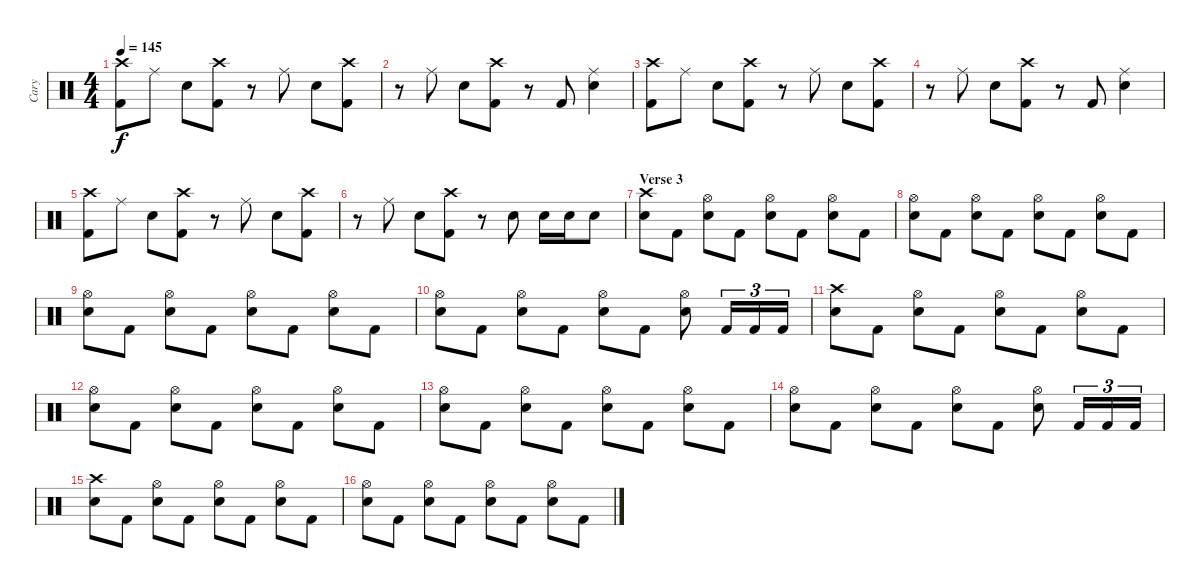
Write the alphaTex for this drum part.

\track ("Cary" "Cary") {instrument percussion}
\staff {score}
\articulation defaults
\ts (4 4)
\tempo 145
\clef neutral
\ks c
("Crash high (hit)" "Kick (hit) 2").8{dy f} "Ride (middle)".8 "Electric Snare (hit)".8 ("Crash high (hit)" "Kick (hit) 2").8 r.8 "Ride (middle)".8 "Electric Snare (hit)".8 ("Crash high (hit)" "Kick (hit) 2").8 |
r.8 "Ride (middle)".8 "Electric Snare (hit)".8 ("Crash high (hit)" "Kick (hit) 2").8 r.8 "Kick (hit) 2".8 ("Ride (middle)" "Electric Snare (hit)").4 |
("Crash high (hit)" "Kick (hit) 2").8 "Ride (middle)".8 "Electric Snare (hit)".8 ("Crash high (hit)" "Kick (hit) 2").8 r.8 "Ride (middle)".8 "Electric Snare (hit)".8 ("Crash high (hit)" "Kick (hit) 2").8 |
r.8 "Ride (middle)".8 "Electric Snare (hit)".8 ("Crash high (hit)" "Kick (hit) 2").8 r.8 "Kick (hit) 2".8 ("Ride (middle)" "Electric Snare (hit)").4 |
("Crash high (hit)" "Kick (hit) 2").8 "Ride (middle)".8 "Electric Snare (hit)".8 ("Crash high (hit)" "Kick (hit) 2").8 r.8 "Ride (middle)".8 "Electric Snare (hit)".8 ("Crash high (hit)" "Kick (hit) 2").8 |
r.8 "Ride (middle)".8 "Electric Snare (hit)".8 ("Crash high (hit)" "Kick (hit) 2").8 r.8 "Electric Snare (hit)".8 "Electric Snare (hit)".16 "Electric Snare (hit)".16 "Electric Snare (hit)".8 |
\section ("" "Verse 3")
("Crash high (hit)" "Electric Snare (hit)").8 "Kick (hit) 2".8 ("Hi-Hat (open)" "Electric Snare (hit)").8 "Kick (hit) 2".8 ("Hi-Hat (open)" "Electric Snare (hit)").8 "Kick (hit) 2".8 ("Hi-Hat (open)" "Electric Snare (hit)").8 "Kick (hit) 2".8 |
("Hi-Hat (open)" "Electric Snare (hit)").8 "Kick (hit) 2".8 ("Hi-Hat (open)" "Electric Snare (hit)").8 "Kick (hit) 2".8 ("Hi-Hat (open)" "Electric Snare (hit)").8 "Kick (hit) 2".8 ("Hi-Hat (open)" "Electric Snare (hit)").8 "Kick (hit) 2".8 |
("Hi-Hat (open)" "Electric Snare (hit)").8 "Kick (hit) 2".8 ("Hi-Hat (open)" "Electric Snare (hit)").8 "Kick (hit) 2".8 ("Hi-Hat (open)" "Electric Snare (hit)").8 "Kick (hit) 2".8 ("Hi-Hat (open)" "Electric Snare (hit)").8 "Kick (hit) 2".8 |
("Hi-Hat (open)" "Electric Snare (hit)").8 "Kick (hit) 2".8 ("Hi-Hat (open)" "Electric Snare (hit)").8 "Kick (hit) 2".8 ("Hi-Hat (open)" "Electric Snare (hit)").8 "Kick (hit) 2".8 ("Hi-Hat (open)" "Electric Snare (hit)").8 "Kick (hit) 2".16{tu (3 2)} "Kick (hit) 2".16{tu (3 2)} "Kick (hit) 2".16{tu (3 2)} |
("Crash high (hit)" "Electric Snare (hit)").8 "Kick (hit) 2".8 ("Hi-Hat (open)" "Electric Snare (hit)").8 "Kick (hit) 2".8 ("Hi-Hat (open)" "Electric Snare (hit)").8 "Kick (hit) 2".8 ("Hi-Hat (open)" "Electric Snare (hit)").8 "Kick (hit) 2".8 |
("Hi-Hat (open)" "Electric Snare (hit)").8 "Kick (hit) 2".8 ("Hi-Hat (open)" "Electric Snare (hit)").8 "Kick (hit) 2".8 ("Hi-Hat (open)" "Electric Snare (hit)").8 "Kick (hit) 2".8 ("Hi-Hat (open)" "Electric Snare (hit)").8 "Kick (hit) 2".8 |
("Hi-Hat (open)" "Electric Snare (hit)").8 "Kick (hit) 2".8 ("Hi-Hat (open)" "Electric Snare (hit)").8 "Kick (hit) 2".8 ("Hi-Hat (open)" "Electric Snare (hit)").8 "Kick (hit) 2".8 ("Hi-Hat (open)" "Electric Snare (hit)").8 "Kick (hit) 2".8 |
("Hi-Hat (open)" "Electric Snare (hit)").8 "Kick (hit) 2".8 ("Hi-Hat (open)" "Electric Snare (hit)").8 "Kick (hit) 2".8 ("Hi-Hat (open)" "Electric Snare (hit)").8 "Kick (hit) 2".8 ("Hi-Hat (open)" "Electric Snare (hit)").8 "Kick (hit) 2".16{tu (3 2)} "Kick (hit) 2".16{tu (3 2)} "Kick (hit) 2".16{tu (3 2)} |
("Crash high (hit)" "Electric Snare (hit)").8 "Kick (hit) 2".8 ("Hi-Hat (open)" "Electric Snare (hit)").8 "Kick (hit) 2".8 ("Hi-Hat (open)" "Electric Snare (hit)").8 "Kick (hit) 2".8 ("Hi-Hat (open)" "Electric Snare (hit)").8 "Kick (hit) 2".8 |
("Hi-Hat (open)" "Electric Snare (hit)").8 "Kick (hit) 2".8 ("Hi-Hat (open)" "Electric Snare (hit)").8 "Kick (hit) 2".8 ("Hi-Hat (open)" "Electric Snare (hit)").8 "Kick (hit) 2".8 ("Hi-Hat (open)" "Electric Snare (hit)").8 "Kick (hit) 2".8
